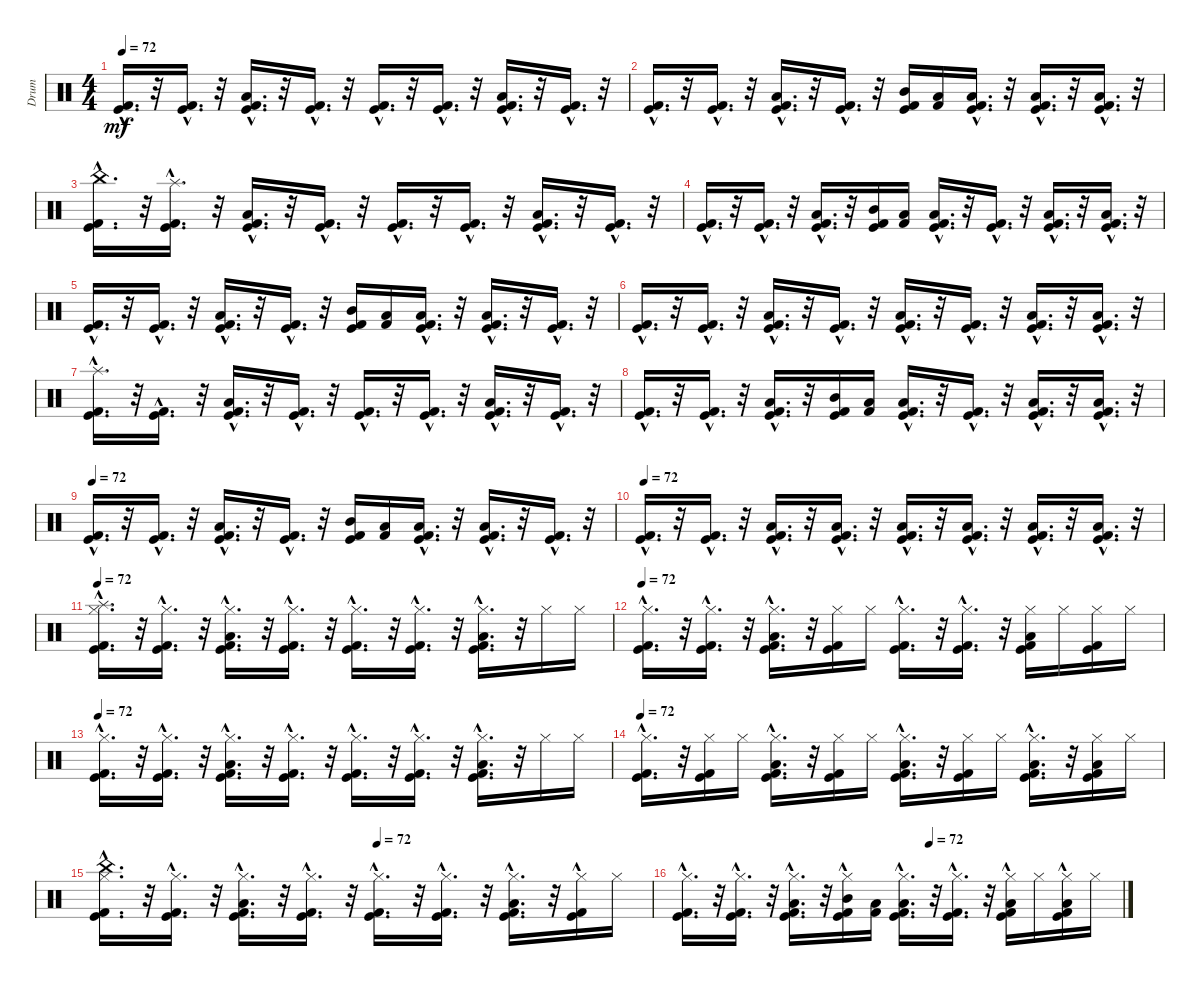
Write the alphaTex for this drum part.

\track ("Drum" "Drum") {instrument percussion}
\staff {score}
\articulation defaults
\ts (4 4)
\tempo 72
\clef neutral
\ks c
("Kick (hit) 2"{hac} "Kick (hit)"{hac}).16{d dy mf} r.32 ("Kick (hit) 2"{hac} "Kick (hit)"{hac}).16{d} r.32 ("Kick (hit) 2"{hac} "Low Tom (hit)"{hac} "Kick (hit)"{hac}).16{d} r.32 ("Kick (hit) 2"{hac} "Kick (hit)"{hac}).16{d} r.32 ("Kick (hit) 2"{hac} "Kick (hit)"{hac}).16{d} r.32 ("Kick (hit) 2"{hac} "Kick (hit)"{hac}).16{d} r.32 ("Kick (hit) 2"{hac} "Low Tom (hit)"{hac} "Kick (hit)"{hac}).16{d} r.32 ("Kick (hit) 2"{hac} "Kick (hit)"{hac}).16{d} r.32 |
("Kick (hit) 2"{hac} "Kick (hit)"{hac}).16{d} r.32 ("Kick (hit) 2"{hac} "Kick (hit)"{hac}).16{d} r.32 ("Low Tom (hit)"{hac} "Kick (hit) 2"{hac} "Kick (hit)"{hac}).16{d} r.32 ("Kick (hit) 2"{hac} "Kick (hit)"{hac}).16{d} r.32 ("Mid Tom (hit)" "Kick (hit)" "Kick (hit) 2").16 ("Kick (hit) 2" "Low Tom (hit)").16 ("Kick (hit) 2"{hac} "Low Floor Tom (hit)"{hac} "Kick (hit)"{hac}).16{d} r.32 ("Low Tom (hit)"{hac} "Kick (hit) 2"{hac} "Kick (hit)"{hac}).16{d} r.32 ("Low Tom (hit)"{hac} "Kick (hit) 2"{hac} "Kick (hit)"{hac}).16{d} r.32 |
("Kick (hit) 2"{hac} "China (hit)"{hac} "Kick (hit)"{hac}).16{d} r.32 ("Splash (hit)"{hac} "Kick (hit) 2"{hac} "Kick (hit)"{hac}).16{d} r.32 ("Kick (hit) 2"{hac} "Low Tom (hit)"{hac} "Kick (hit)"{hac}).16{d} r.32 ("Kick (hit) 2"{hac} "Kick (hit)"{hac}).16{d} r.32 ("Kick (hit) 2"{hac} "Kick (hit)"{hac}).16{d} r.32 ("Kick (hit) 2"{hac} "Kick (hit)"{hac}).16{d} r.32 ("Kick (hit) 2"{hac} "Low Tom (hit)"{hac} "Kick (hit)"{hac}).16{d} r.32 ("Kick (hit) 2"{hac} "Kick (hit)"{hac}).16{d} r.32 |
("Kick (hit) 2"{hac} "Kick (hit)"{hac}).16{d} r.32 ("Kick (hit)"{hac} "Kick (hit) 2"{hac}).16{d} r.32 ("Low Tom (hit)"{hac} "Kick (hit)"{hac} "Kick (hit) 2"{hac}).16{d} r.32 ("Kick (hit)" "Kick (hit) 2" "Mid Tom (hit)").16 ("Low Tom (hit)" "Kick (hit) 2").16 ("Kick (hit) 2"{hac} "Kick (hit)"{hac} "Low Floor Tom (hit)"{hac}).16{d} r.32 ("Kick (hit)"{hac} "Kick (hit) 2"{hac}).16{d} r.32 ("Low Tom (hit)"{hac} "Kick (hit) 2"{hac} "Kick (hit)"{hac}).16{d} r.32 ("Kick (hit) 2"{hac} "Kick (hit)"{hac} "Low Tom (hit)"{hac}).16{d} r.32 |
("Kick (hit) 2"{hac} "Kick (hit)"{hac}).16{d} r.32 ("Kick (hit)"{hac} "Kick (hit) 2"{hac}).16{d} r.32 ("Low Tom (hit)"{hac} "Kick (hit)"{hac} "Kick (hit) 2"{hac}).16{d} r.32 ("Kick (hit)"{hac} "Kick (hit) 2"{hac}).16{d} r.32 ("Kick (hit)" "Kick (hit) 2" "Mid Tom (hit)").16 ("Kick (hit) 2" "Low Tom (hit)").16 ("Kick (hit)"{hac} "Kick (hit) 2"{hac} "Low Floor Tom (hit)"{hac}).16{d} r.32 ("Kick (hit) 2"{hac} "Low Tom (hit)"{hac} "Kick (hit)"{hac}).16{d} r.32 ("Kick (hit) 2"{hac} "Kick (hit)"{hac}).16{d} r.32 |
("Kick (hit)"{hac} "Kick (hit) 2"{hac}).16{d} r.32 ("Kick (hit)"{hac} "Kick (hit) 2"{hac}).16{d} r.32 ("Kick (hit)"{hac} "Kick (hit) 2"{hac} "Low Tom (hit)"{hac}).16{d} r.32 ("Kick (hit)"{hac} "Kick (hit) 2"{hac}).16{d} r.32 ("Kick (hit)"{hac} "Kick (hit) 2"{hac} "Low Tom (hit)"{hac}).16{d} r.32 ("Kick (hit)"{hac} "Kick (hit) 2"{hac}).16{d} r.32 ("Low Tom (hit)"{hac} "Kick (hit)"{hac} "Kick (hit) 2"{hac}).16{d} r.32 ("Low Tom (hit)"{hac} "Kick (hit) 2"{hac} "Kick (hit)"{hac}).16{d} r.32 |
("Kick (hit)"{hac} "Splash (hit)"{hac} "Kick (hit) 2"{hac}).16{d} r.32 ("Kick (hit)"{hac} "Kick (hit) 2"{hac}).16{d} r.32 ("Kick (hit)"{hac} "Low Tom (hit)"{hac} "Kick (hit) 2"{hac}).16{d} r.32 ("Kick (hit)"{hac} "Kick (hit) 2"{hac}).16{d} r.32 ("Kick (hit)"{hac} "Kick (hit) 2"{hac}).16{d} r.32 ("Kick (hit)"{hac} "Kick (hit) 2"{hac}).16{d} r.32 ("Kick (hit)"{hac} "Low Tom (hit)"{hac} "Kick (hit) 2"{hac}).16{d} r.32 ("Kick (hit)"{hac} "Kick (hit) 2"{hac}).16{d} r.32 |
("Kick (hit)"{hac} "Kick (hit) 2"{hac}).16{d} r.32 ("Kick (hit) 2"{hac} "Kick (hit)"{hac}).16{d} r.32 ("Kick (hit)"{hac} "Low Tom (hit)"{hac} "Kick (hit) 2"{hac}).16{d} r.32 ("Kick (hit) 2" "Mid Tom (hit)" "Kick (hit)").16 ("Kick (hit) 2" "Low Tom (hit)").16 ("Low Floor Tom (hit)"{hac} "Kick (hit)"{hac} "Kick (hit) 2"{hac}).16{d} r.32 ("Kick (hit) 2"{hac} "Kick (hit)"{hac}).16{d} r.32 ("Kick (hit)"{hac} "Kick (hit) 2"{hac} "Low Tom (hit)"{hac}).16{d} r.32 ("Kick (hit)"{hac} "Low Tom (hit)"{hac} "Kick (hit) 2"{hac}).16{d} r.32 |
\tempo 72
("Kick (hit)"{hac} "Kick (hit) 2"{hac}).16{d} r.32 ("Kick (hit)"{hac} "Kick (hit) 2"{hac}).16{d} r.32 ("Kick (hit)"{hac} "Kick (hit) 2"{hac} "Low Tom (hit)"{hac}).16{d} r.32 ("Kick (hit)"{hac} "Kick (hit) 2"{hac}).16{d} r.32 ("Kick (hit) 2" "Kick (hit)" "Mid Tom (hit)").16 ("Low Tom (hit)" "Kick (hit) 2").16 ("Kick (hit)"{hac} "Low Floor Tom (hit)"{hac} "Kick (hit) 2"{hac}).16{d} r.32 ("Kick (hit)"{hac} "Kick (hit) 2"{hac} "Low Tom (hit)"{hac}).16{d} r.32 ("Kick (hit)"{hac} "Kick (hit) 2"{hac}).16{d} r.32 |
\tempo 72
("Kick (hit) 2"{hac} "Kick (hit)"{hac}).16{d} r.32 ("Kick (hit) 2"{hac} "Kick (hit)"{hac}).16{d} r.32 ("Low Tom (hit)"{hac} "Kick (hit) 2"{hac} "Kick (hit)"{hac}).16{d} r.32 ("Low Floor Tom (hit)"{hac} "Kick (hit) 2"{hac} "Kick (hit)"{hac}).16{d} r.32 ("Low Tom (hit)"{hac} "Kick (hit) 2"{hac} "Kick (hit)"{hac}).16{d} r.32 ("Low Floor Tom (hit)"{hac} "Kick (hit) 2"{hac} "Kick (hit)"{hac}).16{d} r.32 ("Kick (hit) 2"{hac} "Kick (hit)"{hac} "Low Tom (hit)"{hac}).16{d} r.32 ("Kick (hit)"{hac} "Kick (hit) 2"{hac} "Low Floor Tom (hit)"{hac}).16{d} r.32 |
\tempo 72
("Hi-Hat (closed)"{hac} "Kick (hit) 2"{hac} "Splash (hit)"{hac} "Kick (hit)"{hac}).16{d} r.32 ("Hi-Hat (closed)"{hac} "Kick (hit) 2"{hac} "Kick (hit)"{hac}).16{d} r.32 ("Hi-Hat (closed)"{hac} "Kick (hit) 2"{hac} "Low Tom (hit)"{hac} "Kick (hit)"{hac}).16{d} r.32 ("Hi-Hat (closed)"{hac} "Kick (hit) 2"{hac} "Kick (hit)"{hac}).16{d} r.32 ("Hi-Hat (closed)"{hac} "Kick (hit) 2"{hac} "Kick (hit)"{hac}).16{d} r.32 ("Hi-Hat (closed)"{hac} "Kick (hit) 2"{hac} "Kick (hit)"{hac}).16{d} r.32 ("Hi-Hat (closed)"{hac} "Kick (hit) 2"{hac} "Low Tom (hit)"{hac} "Kick (hit)"{hac}).16{d} r.32 "Hi-Hat (closed)".16 "Hi-Hat (closed)".16 |
\tempo 72
("Kick (hit)"{hac} "Kick (hit) 2"{hac} "Hi-Hat (closed)"{hac}).16{d} r.32 ("Kick (hit)"{hac} "Kick (hit) 2"{hac} "Hi-Hat (closed)"{hac}).16{d} r.32 ("Kick (hit)"{hac} "Low Tom (hit)"{hac} "Hi-Hat (closed)"{hac} "Kick (hit) 2"{hac}).16{d} r.32 ("Kick (hit)" "Kick (hit) 2" "Hi-Hat (closed)").16 "Hi-Hat (closed)".16 ("Kick (hit)"{hac} "Kick (hit) 2"{hac} "Hi-Hat (closed)"{hac}).16{d} r.32 ("Kick (hit)"{hac} "Kick (hit) 2"{hac} "Hi-Hat (closed)"{hac}).16{d} r.32 ("Low Tom (hit)" "Kick (hit)" "Kick (hit) 2" "Hi-Hat (closed)").16 "Hi-Hat (closed)".16 ("Kick (hit)" "Kick (hit) 2" "Hi-Hat (closed)").16 "Hi-Hat (closed)".16 |
\tempo 72
("Kick (hit)"{hac} "Kick (hit) 2"{hac} "Hi-Hat (closed)"{hac}).16{d} r.32 ("Kick (hit)"{hac} "Kick (hit) 2"{hac} "Hi-Hat (closed)"{hac}).16{d} r.32 ("Kick (hit)"{hac} "Low Tom (hit)"{hac} "Kick (hit) 2"{hac} "Hi-Hat (closed)"{hac}).16{d} r.32 ("Kick (hit)"{hac} "Kick (hit) 2"{hac} "Hi-Hat (closed)"{hac}).16{d} r.32 ("Kick (hit)"{hac} "Kick (hit) 2"{hac} "Hi-Hat (closed)"{hac}).16{d} r.32 ("Kick (hit)"{hac} "Kick (hit) 2"{hac} "Hi-Hat (closed)"{hac}).16{d} r.32 ("Kick (hit)"{hac} "Low Tom (hit)"{hac} "Kick (hit) 2"{hac} "Hi-Hat (closed)"{hac}).16{d} r.32 "Hi-Hat (closed)".16 "Hi-Hat (closed)".16 |
\tempo 72
("Hi-Hat (closed)"{hac} "Kick (hit)"{hac} "Kick (hit) 2"{hac}).16{d} r.32 ("Kick (hit) 2" "Kick (hit)" "Hi-Hat (closed)").16 "Hi-Hat (closed)".16 ("Kick (hit)"{hac} "Kick (hit) 2"{hac} "Hi-Hat (closed)"{hac} "Low Tom (hit)"{hac}).16{d} r.32 ("Kick (hit) 2" "Kick (hit)" "Hi-Hat (closed)").16 "Hi-Hat (closed)".16 ("Kick (hit)"{hac} "Hi-Hat (closed)"{hac} "Kick (hit) 2"{hac} "Low Tom (hit)"{hac}).16{d} r.32 ("Kick (hit) 2" "Kick (hit)" "Hi-Hat (closed)").16 "Hi-Hat (closed)".16 ("Kick (hit) 2"{hac} "Kick (hit)"{hac} "Hi-Hat (closed)"{hac} "Low Tom (hit)"{hac}).16{d} r.32 ("Kick (hit) 2" "Kick (hit)" "Hi-Hat (closed)" "Low Tom (hit)").16 "Hi-Hat (closed)".16 |
\tempo (72 0.5)
("China (hit)"{hac} "Kick (hit) 2"{hac} "Kick (hit)"{hac} "Hi-Hat (closed)"{hac}).16{d} r.32 ("Kick (hit) 2"{hac} "Kick (hit)"{hac} "Hi-Hat (closed)"{hac}).16{d} r.32 ("Kick (hit) 2"{hac} "Low Tom (hit)"{hac} "Kick (hit)"{hac} "Hi-Hat (closed)"{hac}).16{d} r.32 ("Kick (hit) 2"{hac} "Kick (hit)"{hac} "Hi-Hat (closed)"{hac}).16{d} r.32 ("Kick (hit) 2"{hac} "Kick (hit)"{hac} "Hi-Hat (closed)"{hac}).16{d} r.32 ("Kick (hit) 2"{hac} "Kick (hit)"{hac} "Hi-Hat (closed)"{hac}).16{d} r.32 ("Kick (hit) 2"{hac} "Low Tom (hit)"{hac} "Kick (hit)"{hac} "Hi-Hat (closed)"{hac}).16{d} r.32 ("Kick (hit) 2"{hac} "Kick (hit)"{hac} "Hi-Hat (closed)").16 "Hi-Hat (closed)".16 |
\tempo (72 0.5625)
("Kick (hit) 2"{hac} "Kick (hit)"{hac} "Hi-Hat (closed)"{hac}).16{d} r.32 ("Kick (hit)"{hac} "Kick (hit) 2"{hac} "Hi-Hat (closed)"{hac}).16{d} r.32 ("Kick (hit) 2"{hac} "Low Tom (hit)"{hac} "Kick (hit)"{hac} "Hi-Hat (closed)"{hac}).16{d} r.32 ("Kick (hit)" "Mid Tom (hit)" "Kick (hit) 2" "Hi-Hat (closed)"{hac}).16 ("Low Tom (hit)" "Kick (hit) 2").16 ("Kick (hit) 2"{hac} "Kick (hit)"{hac} "Low Floor Tom (hit)"{hac} "Hi-Hat (closed)"{hac}).16{d} r.32 ("Kick (hit)"{hac} "Kick (hit) 2"{hac} "Hi-Hat (closed)"{hac}).16{d} r.32 ("Low Tom (hit)"{hac} "Kick (hit) 2"{hac} "Kick (hit)"{hac} "Hi-Hat (closed)").16 "Hi-Hat (closed)".16 ("Kick (hit) 2"{hac} "Low Tom (hit)"{hac} "Kick (hit)"{hac} "Hi-Hat (closed)").16 "Hi-Hat (closed)".16
